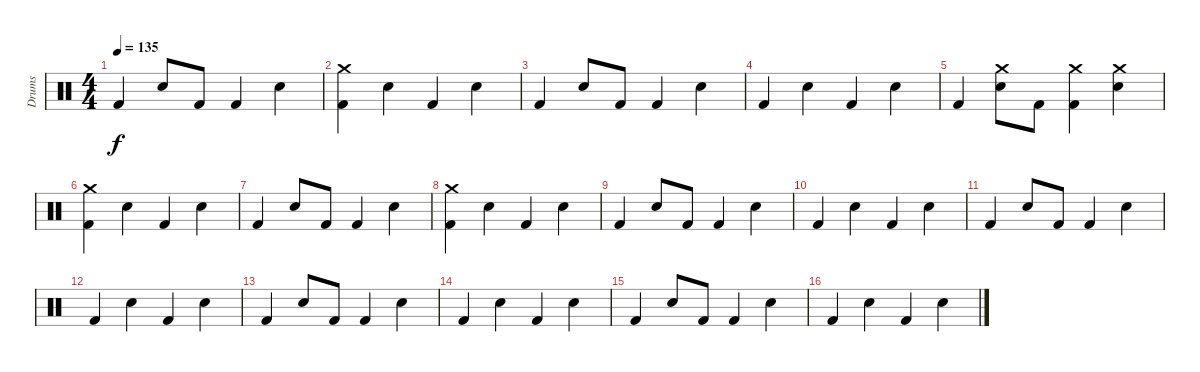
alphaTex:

\track ("Drums" "Drums") {instrument percussion}
\staff {score}
\articulation defaults
\ts (4 4)
\tempo 135
\clef neutral
\ks c "Kick (hit) 2".4{dy f} "Electric Snare (hit)".8 "Kick (hit) 2".8 "Kick (hit) 2".4 "Electric Snare (hit)".4
|
("Crash medium (hit)" "Kick (hit) 2").4 "Electric Snare (hit)".4 "Kick (hit) 2".4 "Electric Snare (hit)".4 |
"Kick (hit) 2".4 "Electric Snare (hit)".8 "Kick (hit) 2".8 "Kick (hit) 2".4 "Electric Snare (hit)".4 |
"Kick (hit) 2".4 "Electric Snare (hit)".4 "Kick (hit) 2".4 "Electric Snare (hit)".4 |
"Kick (hit) 2".4 ("Crash medium (hit)" "Electric Snare (hit)").8 "Kick (hit) 2".8 ("Crash medium (hit)" "Kick (hit) 2").4 ("Crash medium (hit)" "Electric Snare (hit)").4 |
("Crash medium (hit)" "Kick (hit) 2").4 "Electric Snare (hit)".4 "Kick (hit) 2".4 "Electric Snare (hit)".4 |
"Kick (hit) 2".4 "Electric Snare (hit)".8 "Kick (hit) 2".8 "Kick (hit) 2".4 "Electric Snare (hit)".4 |
("Crash medium (hit)" "Kick (hit) 2").4 "Electric Snare (hit)".4 "Kick (hit) 2".4 "Electric Snare (hit)".4 |
"Kick (hit) 2".4 "Electric Snare (hit)".8 "Kick (hit) 2".8 "Kick (hit) 2".4 "Electric Snare (hit)".4 |
"Kick (hit) 2".4 "Electric Snare (hit)".4 "Kick (hit) 2".4 "Electric Snare (hit)".4 |
"Kick (hit) 2".4 "Electric Snare (hit)".8 "Kick (hit) 2".8 "Kick (hit) 2".4 "Electric Snare (hit)".4 |
"Kick (hit) 2".4 "Electric Snare (hit)".4 "Kick (hit) 2".4 "Electric Snare (hit)".4 |
"Kick (hit) 2".4 "Electric Snare (hit)".8 "Kick (hit) 2".8 "Kick (hit) 2".4 "Electric Snare (hit)".4 |
"Kick (hit) 2".4 "Electric Snare (hit)".4 "Kick (hit) 2".4 "Electric Snare (hit)".4 |
"Kick (hit) 2".4 "Electric Snare (hit)".8 "Kick (hit) 2".8 "Kick (hit) 2".4 "Electric Snare (hit)".4 |
"Kick (hit) 2".4 "Electric Snare (hit)".4 "Kick (hit) 2".4 "Electric Snare (hit)".4
